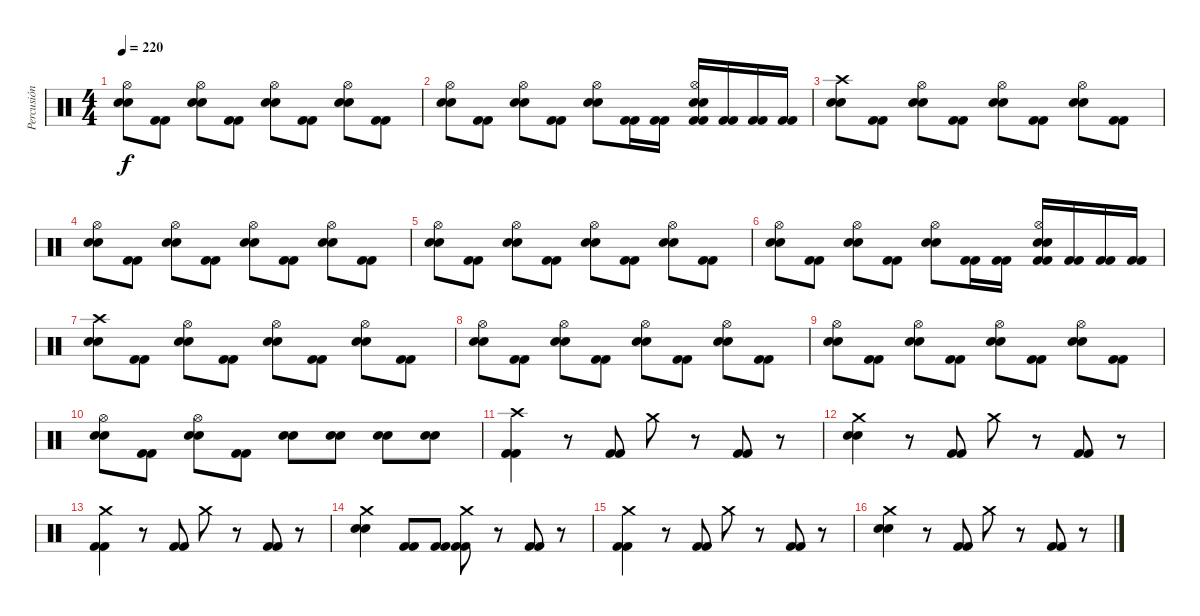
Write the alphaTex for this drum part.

\track ("Percusión" "Percusión") {instrument percussion}
\staff {score}
\articulation defaults
\ts (4 4)
\tempo 220
\clef neutral
\ks c
("Electric Snare (hit)" "Electric Snare (hit)" "Hi-Hat (open)").8{dy f} ("Kick (hit) 2" "Kick (hit) 2").8 ("Electric Snare (hit)" "Electric Snare (hit)" "Hi-Hat (open)").8 ("Kick (hit) 2" "Kick (hit) 2").8 ("Electric Snare (hit)" "Electric Snare (hit)" "Hi-Hat (open)").8 ("Kick (hit) 2" "Kick (hit) 2").8 ("Electric Snare (hit)" "Electric Snare (hit)" "Hi-Hat (open)").8 ("Kick (hit) 2" "Kick (hit) 2").8 |
("Electric Snare (hit)" "Electric Snare (hit)" "Hi-Hat (open)").8 ("Kick (hit) 2" "Kick (hit) 2").8 ("Electric Snare (hit)" "Electric Snare (hit)" "Hi-Hat (open)").8 ("Kick (hit) 2" "Kick (hit) 2").8 ("Electric Snare (hit)" "Electric Snare (hit)" "Hi-Hat (open)").8 ("Kick (hit) 2" "Kick (hit) 2").16 ("Kick (hit) 2" "Kick (hit) 2").16 ("Kick (hit) 2" "Kick (hit) 2" "Electric Snare (hit)" "Electric Snare (hit)" "Hi-Hat (open)").16 ("Kick (hit) 2" "Kick (hit) 2").16 ("Kick (hit) 2" "Kick (hit) 2").16 ("Kick (hit) 2" "Kick (hit) 2").16 |
("Electric Snare (hit)" "Electric Snare (hit)" "Crash high (hit)").8 ("Kick (hit) 2" "Kick (hit) 2").8 ("Electric Snare (hit)" "Electric Snare (hit)" "Hi-Hat (open)").8 ("Kick (hit) 2" "Kick (hit) 2").8 ("Electric Snare (hit)" "Electric Snare (hit)" "Hi-Hat (open)").8 ("Kick (hit) 2" "Kick (hit) 2").8 ("Electric Snare (hit)" "Electric Snare (hit)" "Hi-Hat (open)").8 ("Kick (hit) 2" "Kick (hit) 2").8 |
("Electric Snare (hit)" "Electric Snare (hit)" "Hi-Hat (open)").8 ("Kick (hit) 2" "Kick (hit) 2").8 ("Electric Snare (hit)" "Electric Snare (hit)" "Hi-Hat (open)").8 ("Kick (hit) 2" "Kick (hit) 2").8 ("Electric Snare (hit)" "Electric Snare (hit)" "Hi-Hat (open)").8 ("Kick (hit) 2" "Kick (hit) 2").8 ("Electric Snare (hit)" "Electric Snare (hit)" "Hi-Hat (open)").8 ("Kick (hit) 2" "Kick (hit) 2").8 |
("Electric Snare (hit)" "Electric Snare (hit)" "Hi-Hat (open)").8 ("Kick (hit) 2" "Kick (hit) 2").8 ("Electric Snare (hit)" "Electric Snare (hit)" "Hi-Hat (open)").8 ("Kick (hit) 2" "Kick (hit) 2").8 ("Electric Snare (hit)" "Electric Snare (hit)" "Hi-Hat (open)").8 ("Kick (hit) 2" "Kick (hit) 2").8 ("Electric Snare (hit)" "Electric Snare (hit)" "Hi-Hat (open)").8 ("Kick (hit) 2" "Kick (hit) 2").8 |
("Electric Snare (hit)" "Electric Snare (hit)" "Hi-Hat (open)").8 ("Kick (hit) 2" "Kick (hit) 2").8 ("Electric Snare (hit)" "Electric Snare (hit)" "Hi-Hat (open)").8 ("Kick (hit) 2" "Kick (hit) 2").8 ("Electric Snare (hit)" "Electric Snare (hit)" "Hi-Hat (open)").8 ("Kick (hit) 2" "Kick (hit) 2").16 ("Kick (hit) 2" "Kick (hit) 2").16 ("Kick (hit) 2" "Kick (hit) 2" "Electric Snare (hit)" "Electric Snare (hit)" "Hi-Hat (open)").16 ("Kick (hit) 2" "Kick (hit) 2").16 ("Kick (hit) 2" "Kick (hit) 2").16 ("Kick (hit) 2" "Kick (hit) 2").16 |
("Electric Snare (hit)" "Electric Snare (hit)" "Crash high (hit)").8 ("Kick (hit) 2" "Kick (hit) 2").8 ("Electric Snare (hit)" "Electric Snare (hit)" "Hi-Hat (open)").8 ("Kick (hit) 2" "Kick (hit) 2").8 ("Electric Snare (hit)" "Electric Snare (hit)" "Hi-Hat (open)").8 ("Kick (hit) 2" "Kick (hit) 2").8 ("Electric Snare (hit)" "Electric Snare (hit)" "Hi-Hat (open)").8 ("Kick (hit) 2" "Kick (hit) 2").8 |
("Electric Snare (hit)" "Electric Snare (hit)" "Hi-Hat (open)").8 ("Kick (hit) 2" "Kick (hit) 2").8 ("Electric Snare (hit)" "Electric Snare (hit)" "Hi-Hat (open)").8 ("Kick (hit) 2" "Kick (hit) 2").8 ("Electric Snare (hit)" "Electric Snare (hit)" "Hi-Hat (open)").8 ("Kick (hit) 2" "Kick (hit) 2").8 ("Electric Snare (hit)" "Electric Snare (hit)" "Hi-Hat (open)").8 ("Kick (hit) 2" "Kick (hit) 2").8 |
("Electric Snare (hit)" "Electric Snare (hit)" "Hi-Hat (open)").8 ("Kick (hit) 2" "Kick (hit) 2").8 ("Electric Snare (hit)" "Electric Snare (hit)" "Hi-Hat (open)").8 ("Kick (hit) 2" "Kick (hit) 2").8 ("Electric Snare (hit)" "Electric Snare (hit)" "Hi-Hat (open)").8 ("Kick (hit) 2" "Kick (hit) 2").8 ("Electric Snare (hit)" "Electric Snare (hit)" "Hi-Hat (open)").8 ("Kick (hit) 2" "Kick (hit) 2").8 |
("Electric Snare (hit)" "Electric Snare (hit)" "Hi-Hat (open)").8 ("Kick (hit) 2" "Kick (hit) 2").8 ("Electric Snare (hit)" "Electric Snare (hit)" "Hi-Hat (open)").8 ("Kick (hit) 2" "Kick (hit) 2").8 ("Electric Snare (hit)" "Electric Snare (hit)").8 ("Electric Snare (hit)" "Electric Snare (hit)").8 ("Electric Snare (hit)" "Electric Snare (hit)").8 ("Electric Snare (hit)" "Electric Snare (hit)").8 |
("Kick (hit) 2" "Kick (hit) 2" "Crash high (hit)").4 r.8 ("Kick (hit) 2" "Kick (hit) 2").8 "Crash medium (hit)".8 r.8 ("Kick (hit) 2" "Kick (hit) 2").8 r.8 |
("Electric Snare (hit)" "Electric Snare (hit)" "Crash medium (hit)").4 r.8 ("Kick (hit) 2" "Kick (hit) 2").8 "Crash medium (hit)".8 r.8 ("Kick (hit) 2" "Kick (hit) 2").8 r.8 |
("Kick (hit) 2" "Kick (hit) 2" "Crash medium (hit)").4 r.8 ("Kick (hit) 2" "Kick (hit) 2").8 "Crash medium (hit)".8 r.8 ("Kick (hit) 2" "Kick (hit) 2").8 r.8 |
("Electric Snare (hit)" "Electric Snare (hit)" "Crash medium (hit)").4 ("Kick (hit) 2" "Kick (hit) 2").8 ("Kick (hit) 2" "Kick (hit) 2").8 ("Kick (hit) 2" "Kick (hit) 2" "Crash medium (hit)").8 r.8 ("Kick (hit) 2" "Kick (hit) 2").8 r.8 |
("Kick (hit) 2" "Kick (hit) 2" "Crash medium (hit)").4 r.8 ("Kick (hit) 2" "Kick (hit) 2").8 "Crash medium (hit)".8 r.8 ("Kick (hit) 2" "Kick (hit) 2").8 r.8 |
("Electric Snare (hit)" "Electric Snare (hit)" "Crash medium (hit)").4 r.8 ("Kick (hit) 2" "Kick (hit) 2").8 "Crash medium (hit)".8 r.8 ("Kick (hit) 2" "Kick (hit) 2").8 r.8
